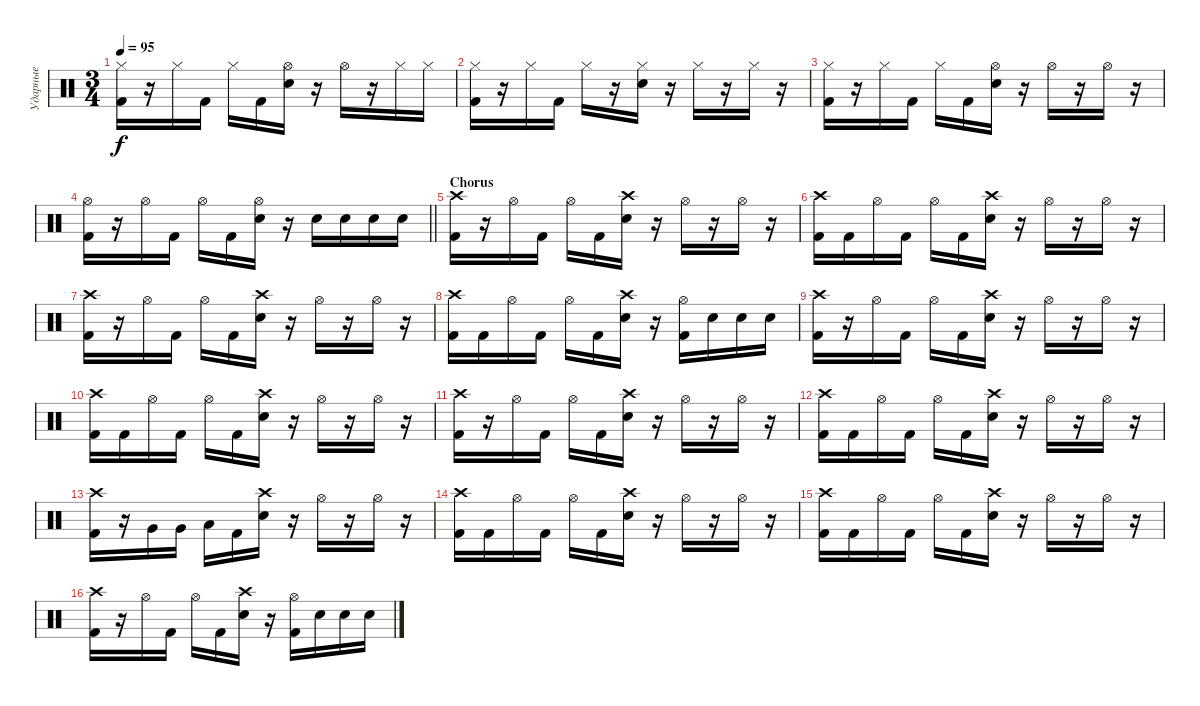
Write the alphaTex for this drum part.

\track ("Ударные" "Ударные") {instrument percussion}
\staff {score}
\articulation defaults
\ts (3 4)
\tempo 95
\clef neutral
\ks c
("Hi-Hat (closed)" "Kick (hit) 2").16{dy f} r.16 "Hi-Hat (closed)".16 "Kick (hit) 2".16 "Hi-Hat (closed)".16 "Kick (hit) 2".16 ("Hi-Hat (open)" "Electric Snare (hit)").16 r.16 "Hi-Hat (open)".16 r.16 "Hi-Hat (closed)".16 "Hi-Hat (closed)".16 |
("Hi-Hat (closed)" "Kick (hit) 2").16 r.16 "Hi-Hat (closed)".16 "Kick (hit) 2".16 "Hi-Hat (closed)".16 r.16 ("Hi-Hat (closed)" "Electric Snare (hit)").16 r.16 "Hi-Hat (closed)".16 r.16 "Hi-Hat (closed)".16 r.16 |
("Hi-Hat (closed)" "Kick (hit) 2").16 r.16 "Hi-Hat (closed)".16 "Kick (hit) 2".16 "Hi-Hat (closed)".16 "Kick (hit) 2".16 ("Hi-Hat (open)" "Electric Snare (hit)").16 r.16 "Hi-Hat (open)".16 r.16 "Hi-Hat (open)".16 r.16 |
\barLineRight lightlight
("Hi-Hat (open)" "Kick (hit) 2").16 r.16 "Hi-Hat (open)".16 "Kick (hit) 2".16 "Hi-Hat (open)".16 "Kick (hit) 2".16 ("Hi-Hat (open)" "Electric Snare (hit)").16 r.16 "Electric Snare (hit)".16 "Electric Snare (hit)".16 "Electric Snare (hit)".16 "Electric Snare (hit)".16 |
\section ("" "Chorus")
("Crash high (hit)" "Kick (hit) 2").16 r.16 "Hi-Hat (open)".16 "Kick (hit) 2".16 "Hi-Hat (open)".16 "Kick (hit) 2".16 ("Crash high (hit)" "Electric Snare (hit)").16 r.16 "Hi-Hat (open)".16 r.16 "Hi-Hat (open)".16 r.16 |
("Crash high (hit)" "Kick (hit) 2").16 "Kick (hit) 2".16 "Hi-Hat (open)".16 "Kick (hit) 2".16 "Hi-Hat (open)".16 "Kick (hit) 2".16 ("Crash high (hit)" "Electric Snare (hit)").16 r.16 "Hi-Hat (open)".16 r.16 "Hi-Hat (open)".16 r.16 |
("Crash high (hit)" "Kick (hit) 2").16 r.16 "Hi-Hat (open)".16 "Kick (hit) 2".16 "Hi-Hat (open)".16 "Kick (hit) 2".16 ("Crash high (hit)" "Electric Snare (hit)").16 r.16 "Hi-Hat (open)".16 r.16 "Hi-Hat (open)".16 r.16 |
("Crash high (hit)" "Kick (hit) 2").16 "Kick (hit) 2".16 "Hi-Hat (open)".16 "Kick (hit) 2".16 "Hi-Hat (open)".16 "Kick (hit) 2".16 ("Crash high (hit)" "Electric Snare (hit)").16 r.16 ("Hi-Hat (open)" "Kick (hit) 2").16 "Electric Snare (hit)".16 "Electric Snare (hit)".16 "Electric Snare (hit)".16 |
("Crash high (hit)" "Kick (hit) 2").16 r.16 "Hi-Hat (open)".16 "Kick (hit) 2".16 "Hi-Hat (open)".16 "Kick (hit) 2".16 ("Crash high (hit)" "Electric Snare (hit)").16 r.16 "Hi-Hat (open)".16 r.16 "Hi-Hat (open)".16 r.16 |
("Crash high (hit)" "Kick (hit) 2").16 "Kick (hit) 2".16 "Hi-Hat (open)".16 "Kick (hit) 2".16 "Hi-Hat (open)".16 "Kick (hit) 2".16 ("Crash high (hit)" "Electric Snare (hit)").16 r.16 "Hi-Hat (open)".16 r.16 "Hi-Hat (open)".16 r.16 |
("Crash high (hit)" "Kick (hit) 2").16 r.16 "Hi-Hat (open)".16 "Kick (hit) 2".16 "Hi-Hat (open)".16 "Kick (hit) 2".16 ("Crash high (hit)" "Electric Snare (hit)").16 r.16 "Hi-Hat (open)".16 r.16 "Hi-Hat (open)".16 r.16 |
("Crash high (hit)" "Kick (hit) 2").16 "Kick (hit) 2".16 "Hi-Hat (open)".16 "Kick (hit) 2".16 "Hi-Hat (open)".16 "Kick (hit) 2".16 ("Crash high (hit)" "Electric Snare (hit)").16 r.16 "Hi-Hat (open)".16 r.16 "Hi-Hat (open)".16 r.16 |
("Crash high (hit)" "Kick (hit) 2").16 r.16 "Very Low Tom (hit)".16 "Very Low Tom (hit)".16 "Low Floor Tom (hit)".16 "Kick (hit) 2".16 ("Crash high (hit)" "Electric Snare (hit)").16 r.16 "Hi-Hat (open)".16 r.16 "Hi-Hat (open)".16 r.16 |
("Crash high (hit)" "Kick (hit) 2").16 "Kick (hit) 2".16 "Hi-Hat (open)".16 "Kick (hit) 2".16 "Hi-Hat (open)".16 "Kick (hit) 2".16 ("Crash high (hit)" "Electric Snare (hit)").16 r.16 "Hi-Hat (open)".16 r.16 "Hi-Hat (open)".16 r.16 |
("Crash high (hit)" "Kick (hit) 2").16 "Kick (hit) 2".16 "Hi-Hat (open)".16 "Kick (hit) 2".16 "Hi-Hat (open)".16 "Kick (hit) 2".16 ("Crash high (hit)" "Electric Snare (hit)").16 r.16 "Hi-Hat (open)".16 r.16 "Hi-Hat (open)".16 r.16 |
("Crash high (hit)" "Kick (hit) 2").16 r.16 "Hi-Hat (open)".16 "Kick (hit) 2".16 "Hi-Hat (open)".16 "Kick (hit) 2".16 ("Crash high (hit)" "Electric Snare (hit)").16 r.16 ("Hi-Hat (open)" "Kick (hit) 2").16 "Electric Snare (hit)".16 "Electric Snare (hit)".16 "Electric Snare (hit)".16
